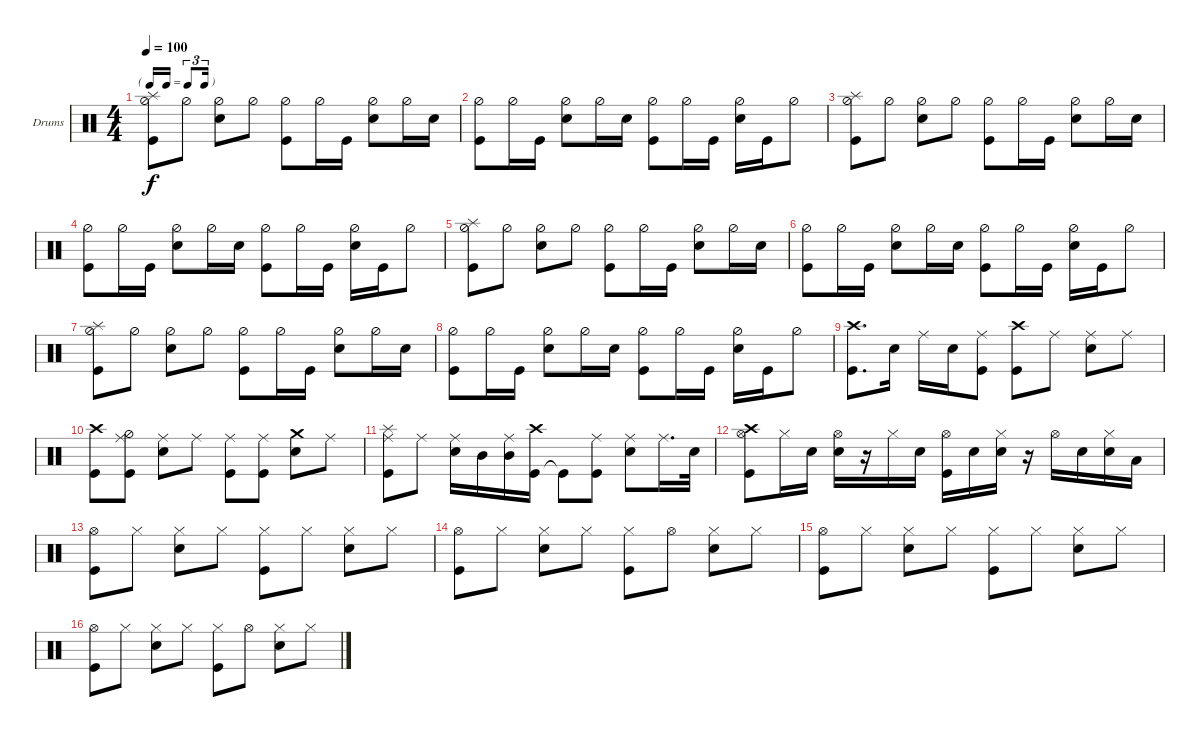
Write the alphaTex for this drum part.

\bracketExtendMode groupsimilarinstruments
\firstSystemTrackNameOrientation horizontal
\otherSystemsTrackNameOrientation horizontal
\track ("Drumkit" "Drums") {instrument percussion}
\staff {score}
\articulation defaults
\ts (4 4)
\tf triplet16th
\tempo 100
\clef neutral
\ks c
("Kick (hit)" "Hi-Hat (half)" "Splash (hit)").8{dy f} "Hi-Hat (half)".8 ("Snare (hit) 2" "Hi-Hat (half)").8 "Hi-Hat (half)".8 ("Kick (hit)" "Hi-Hat (half)").8 "Hi-Hat (half)".16 "Kick (hit)".16 ("Snare (hit) 2" "Hi-Hat (half)").8 "Hi-Hat (half)".16 "Snare (hit) 2".16 |
("Hi-Hat (half)" "Kick (hit)").8 "Hi-Hat (half)".16 "Kick (hit)".16 ("Hi-Hat (half)" "Snare (hit) 2").8 "Hi-Hat (half)".16 "Snare (hit) 2".16 ("Hi-Hat (half)" "Kick (hit)").8 "Hi-Hat (half)".16 "Kick (hit)".16 ("Hi-Hat (half)" "Snare (hit) 2").16 "Kick (hit)".16 "Hi-Hat (half)".8 |
("Kick (hit)" "Hi-Hat (half)" "Splash (hit)").8 "Hi-Hat (half)".8 ("Snare (hit) 2" "Hi-Hat (half)").8 "Hi-Hat (half)".8 ("Kick (hit)" "Hi-Hat (half)").8 "Hi-Hat (half)".16 "Kick (hit)".16 ("Snare (hit) 2" "Hi-Hat (half)").8 "Hi-Hat (half)".16 "Snare (hit) 2".16 |
("Hi-Hat (half)" "Kick (hit)").8 "Hi-Hat (half)".16 "Kick (hit)".16 ("Hi-Hat (half)" "Snare (hit) 2").8 "Hi-Hat (half)".16 "Snare (hit) 2".16 ("Hi-Hat (half)" "Kick (hit)").8 "Hi-Hat (half)".16 "Kick (hit)".16 ("Hi-Hat (half)" "Snare (hit) 2").16 "Kick (hit)".16 "Hi-Hat (half)".8 |
("Kick (hit)" "Hi-Hat (half)" "Splash (hit)").8 "Hi-Hat (half)".8 ("Snare (hit) 2" "Hi-Hat (half)").8 "Hi-Hat (half)".8 ("Kick (hit)" "Hi-Hat (half)").8 "Hi-Hat (half)".16 "Kick (hit)".16 ("Snare (hit) 2" "Hi-Hat (half)").8 "Hi-Hat (half)".16 "Snare (hit) 2".16 |
("Hi-Hat (half)" "Kick (hit)").8 "Hi-Hat (half)".16 "Kick (hit)".16 ("Hi-Hat (half)" "Snare (hit) 2").8 "Hi-Hat (half)".16 "Snare (hit) 2".16 ("Hi-Hat (half)" "Kick (hit)").8 "Hi-Hat (half)".16 "Kick (hit)".16 ("Hi-Hat (half)" "Snare (hit) 2").16 "Kick (hit)".16 "Hi-Hat (half)".8 |
("Kick (hit)" "Hi-Hat (half)" "Splash (hit)").8 "Hi-Hat (half)".8 ("Snare (hit) 2" "Hi-Hat (half)").8 "Hi-Hat (half)".8 ("Kick (hit)" "Hi-Hat (half)").8 "Hi-Hat (half)".16 "Kick (hit)".16 ("Snare (hit) 2" "Hi-Hat (half)").8 "Hi-Hat (half)".16 "Snare (hit) 2".16 |
("Hi-Hat (half)" "Kick (hit)").8 "Hi-Hat (half)".16 "Kick (hit)".16 ("Hi-Hat (half)" "Snare (hit) 2").8 "Hi-Hat (half)".16 "Snare (hit) 2".16 ("Hi-Hat (half)" "Kick (hit)").8 "Hi-Hat (half)".16 "Kick (hit)".16 ("Hi-Hat (half)" "Snare (hit) 2").16 "Kick (hit)".16 "Hi-Hat (half)".8 |
("Kick (hit)" "Crash high (hit)").8{d} "Snare (hit) 2".16 "Ride (middle)".16 "Snare (hit) 2".16 ("Kick (hit)" "Ride (middle)").8 ("Kick (hit)" "Crash high (hit)").8 "Ride (middle)".8 ("Snare (hit) 2" "Ride (middle)").8 "Ride (middle)".8 |
("Kick (hit)" "Crash high (hit)").8 ("Kick (hit)" "Hi-Hat (half)" "Ride (middle)").8 ("Snare (hit) 2" "Ride (middle)").8 "Ride (middle)".8 ("Ride (middle)" "Kick (hit)").8 ("Ride (middle)" "Kick (hit)").8 ("Snare (hit) 2" "Crash medium (hit)").8 "Ride (middle)".8 |
("Kick (hit)" "Ride (middle)" "Splash (hit)").8 "Ride (middle)".8 ("Ride (middle)" "Snare (hit) 2").16 "Mid Tom (hit)".16 ("Ride (middle)" "Mid Tom (hit)").16 ("Kick (hit)" "Crash high (hit)").16 "Kick (hit)"{t}.8 ("Ride (middle)" "Kick (hit)").8 ("Ride (middle)" "Snare (hit) 2").8 "Ride (middle)".16{d} "Snare (hit) 2".32 |
("Kick (hit)" "Crash high (hit)" "Hi-Hat (open)").8 "Hi-Hat (closed)".16 "Snare (hit) 2".16 ("Snare (hit) 2" "Hi-Hat (open)").16 r.16 "Hi-Hat (closed)".16 "Snare (hit) 2".16 ("Hi-Hat (open)" "Kick (hit)").16 "Snare (hit) 2".16 ("Snare (hit) 2" "Hi-Hat (closed)").16 r.16 "Hi-Hat (open)".16 "Snare (hit) 2".16 ("Snare (hit) 2" "Hi-Hat (closed)").16 "Low Tom (hit)".16 |
("Kick (hit)" "Hi-Hat (open)").8 "Hi-Hat (closed)".8 ("Hi-Hat (closed)" "Snare (hit) 2").8 "Hi-Hat (closed)".8 ("Hi-Hat (closed)" "Kick (hit)").8 "Hi-Hat (closed)".8 ("Hi-Hat (closed)" "Snare (hit) 2").8 "Hi-Hat (closed)".8 |
("Hi-Hat (open)" "Kick (hit)").8 "Hi-Hat (closed)".8 ("Hi-Hat (closed)" "Snare (hit) 2").8 "Hi-Hat (closed)".8 ("Hi-Hat (closed)" "Kick (hit)").8 "Hi-Hat (open)".8 ("Hi-Hat (closed)" "Snare (hit) 2").8 "Hi-Hat (closed)".8 |
("Kick (hit)" "Hi-Hat (open)").8 "Hi-Hat (closed)".8 ("Hi-Hat (closed)" "Snare (hit) 2").8 "Hi-Hat (closed)".8 ("Hi-Hat (closed)" "Kick (hit)").8 "Hi-Hat (closed)".8 ("Hi-Hat (closed)" "Snare (hit) 2").8 "Hi-Hat (closed)".8 |
("Hi-Hat (open)" "Kick (hit)").8 "Hi-Hat (closed)".8 ("Hi-Hat (closed)" "Snare (hit) 2").8 "Hi-Hat (closed)".8 ("Hi-Hat (closed)" "Kick (hit)").8 "Hi-Hat (open)".8 ("Hi-Hat (closed)" "Snare (hit) 2").8 "Hi-Hat (closed)".8
